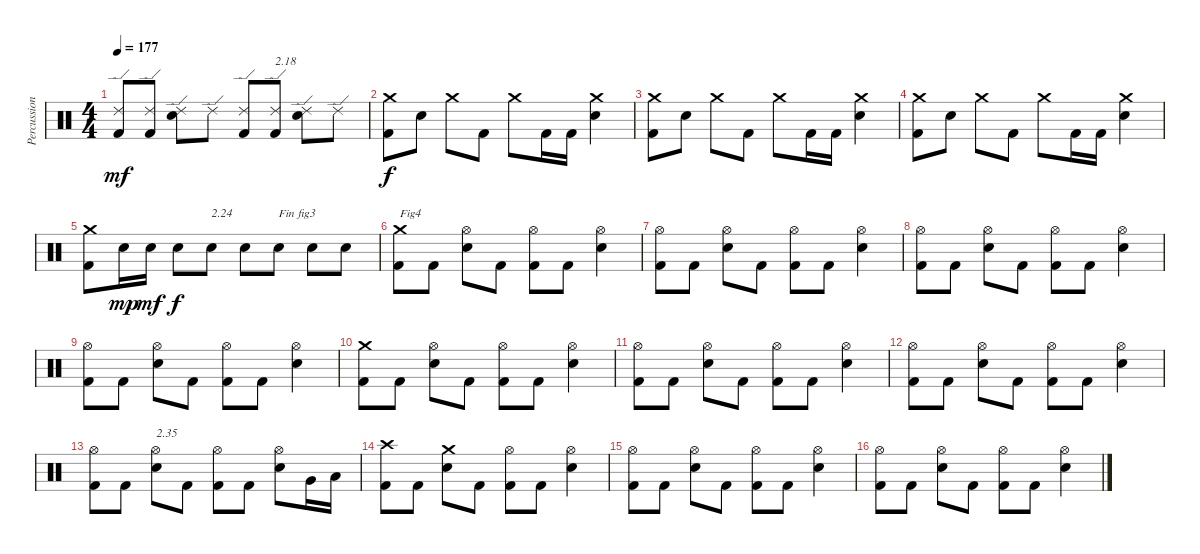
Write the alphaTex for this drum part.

\track ("Percussions" "Percussion") {instrument percussion}
\staff {score}
\articulation defaults
\ts (4 4)
\tempo 177
\clef neutral
\ks c
("Kick (hit) 2" "Ride (edge) 2").8{dy mf} ("Kick (hit) 2" "Ride (edge) 2").8 ("Electric Snare (hit)" "Ride (edge) 2").8 "Ride (edge) 2".8 ("Kick (hit) 2" "Ride (edge) 2").8 ("Kick (hit) 2" "Ride (edge) 2").8{txt "2.18"} ("Electric Snare (hit)" "Ride (edge) 2").8 "Ride (edge) 2".8 |
("Kick (hit) 2" "Crash medium (hit)").8{dy f} "Electric Snare (hit)".8 "Crash medium (hit)".8 "Kick (hit) 2".8 "Crash medium (hit)".8 "Kick (hit) 2".16 "Kick (hit) 2".16 ("Electric Snare (hit)" "Crash medium (hit)").4 |
("Kick (hit) 2" "Crash medium (hit)").8 "Electric Snare (hit)".8 "Crash medium (hit)".8 "Kick (hit) 2".8 "Crash medium (hit)".8 "Kick (hit) 2".16 "Kick (hit) 2".16 ("Electric Snare (hit)" "Crash medium (hit)").4 |
("Kick (hit) 2" "Crash medium (hit)").8 "Electric Snare (hit)".8 "Crash medium (hit)".8 "Kick (hit) 2".8 "Crash medium (hit)".8 "Kick (hit) 2".16 "Kick (hit) 2".16 ("Electric Snare (hit)" "Crash medium (hit)").4 |
("Kick (hit) 2" "Crash medium (hit)").8 "Electric Snare (hit)".16{dy mp} "Electric Snare (hit)".16{dy mf} "Electric Snare (hit)".8{dy f} "Electric Snare (hit)".8{txt "2.24"} "Electric Snare (hit)".8 "Electric Snare (hit)".8{txt "Fin fig3"} "Electric Snare (hit)".8 "Electric Snare (hit)".8 |
("Kick (hit) 2" "Crash medium (hit)").8{txt "Fig4"} "Kick (hit) 2".8 ("Electric Snare (hit)" "Hi-Hat (open)").8 "Kick (hit) 2".8 ("Kick (hit) 2" "Hi-Hat (open)").8 "Kick (hit) 2".8 ("Electric Snare (hit)" "Hi-Hat (open)").4 |
("Kick (hit) 2" "Hi-Hat (open)").8 "Kick (hit) 2".8 ("Electric Snare (hit)" "Hi-Hat (open)").8 "Kick (hit) 2".8 ("Kick (hit) 2" "Hi-Hat (open)").8 "Kick (hit) 2".8 ("Electric Snare (hit)" "Hi-Hat (open)").4 |
("Kick (hit) 2" "Hi-Hat (open)").8 "Kick (hit) 2".8 ("Electric Snare (hit)" "Hi-Hat (open)").8 "Kick (hit) 2".8 ("Kick (hit) 2" "Hi-Hat (open)").8 "Kick (hit) 2".8 ("Electric Snare (hit)" "Hi-Hat (open)").4 |
("Kick (hit) 2" "Hi-Hat (open)").8 "Kick (hit) 2".8 ("Electric Snare (hit)" "Hi-Hat (open)").8 "Kick (hit) 2".8 ("Kick (hit) 2" "Hi-Hat (open)").8 "Kick (hit) 2".8 ("Electric Snare (hit)" "Hi-Hat (open)").4 |
("Kick (hit) 2" "Crash medium (hit)").8 "Kick (hit) 2".8 ("Electric Snare (hit)" "Hi-Hat (open)").8 "Kick (hit) 2".8 ("Kick (hit) 2" "Hi-Hat (open)").8 "Kick (hit) 2".8 ("Electric Snare (hit)" "Hi-Hat (open)").4 |
("Kick (hit) 2" "Hi-Hat (open)").8 "Kick (hit) 2".8 ("Electric Snare (hit)" "Hi-Hat (open)").8 "Kick (hit) 2".8 ("Kick (hit) 2" "Hi-Hat (open)").8 "Kick (hit) 2".8 ("Electric Snare (hit)" "Hi-Hat (open)").4 |
("Kick (hit) 2" "Hi-Hat (open)").8 "Kick (hit) 2".8 ("Electric Snare (hit)" "Hi-Hat (open)").8 "Kick (hit) 2".8 ("Kick (hit) 2" "Hi-Hat (open)").8 "Kick (hit) 2".8 ("Electric Snare (hit)" "Hi-Hat (open)").4 |
("Kick (hit) 2" "Hi-Hat (open)").8 "Kick (hit) 2".8 ("Electric Snare (hit)" "Hi-Hat (open)").8{txt "2.35"} "Kick (hit) 2".8 ("Kick (hit) 2" "Hi-Hat (open)").8 "Kick (hit) 2".8 ("Electric Snare (hit)" "Hi-Hat (open)").8 "Very Low Tom (hit)".16 "Low Tom (hit)".16 |
("Kick (hit) 2" "Crash high (hit)").8 "Kick (hit) 2".8 ("Electric Snare (hit)" "Crash medium (hit)").8 "Kick (hit) 2".8 ("Kick (hit) 2" "Hi-Hat (open)").8 "Kick (hit) 2".8 ("Electric Snare (hit)" "Hi-Hat (open)").4 |
("Kick (hit) 2" "Hi-Hat (open)").8 "Kick (hit) 2".8 ("Electric Snare (hit)" "Hi-Hat (open)").8 "Kick (hit) 2".8 ("Kick (hit) 2" "Hi-Hat (open)").8 "Kick (hit) 2".8 ("Electric Snare (hit)" "Hi-Hat (open)").4 |
("Kick (hit) 2" "Hi-Hat (open)").8 "Kick (hit) 2".8 ("Electric Snare (hit)" "Hi-Hat (open)").8 "Kick (hit) 2".8 ("Kick (hit) 2" "Hi-Hat (open)").8 "Kick (hit) 2".8 ("Electric Snare (hit)" "Hi-Hat (open)").4
